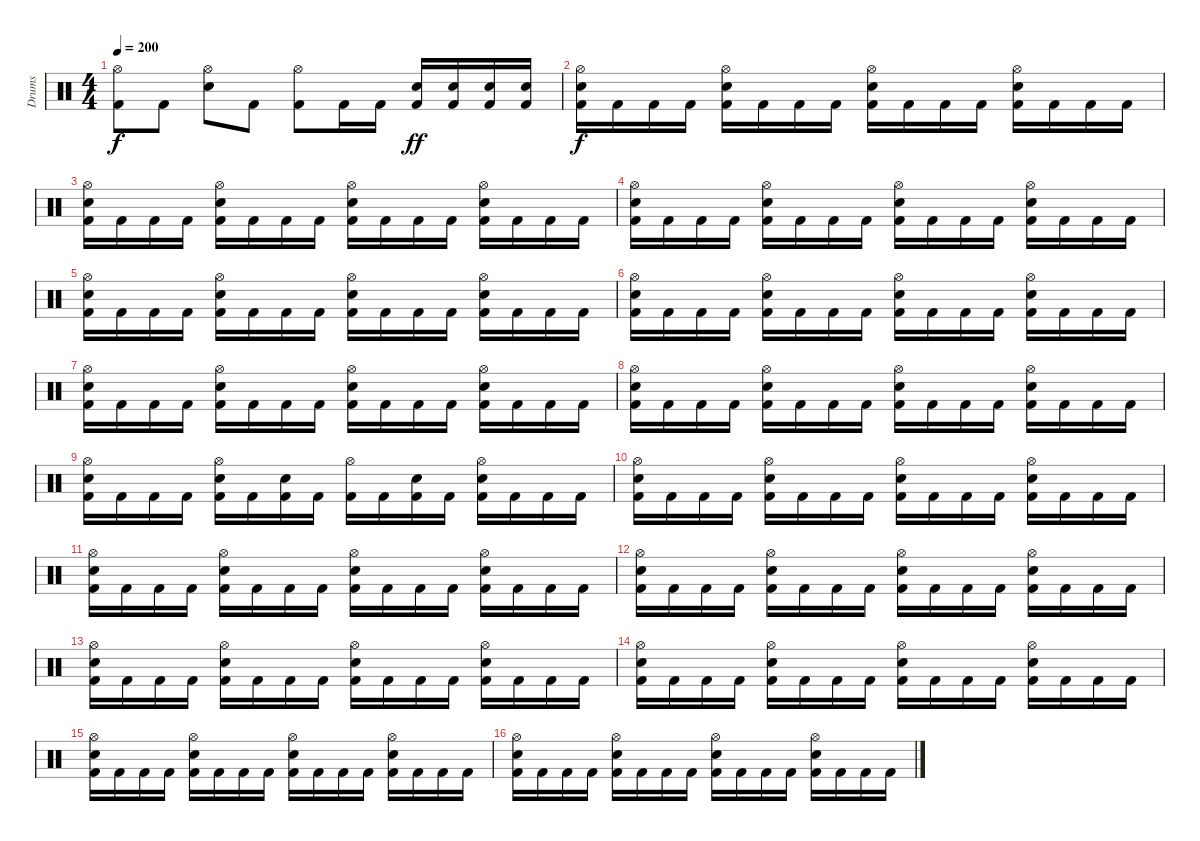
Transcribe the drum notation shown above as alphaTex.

\track ("Drums" "Drums") {instrument percussion}
\staff {score}
\articulation defaults
\ts (4 4)
\tempo 200
\clef neutral
\ks c
("Hi-Hat (open)" "Kick (hit) 2").8{dy f} "Kick (hit) 2".8 ("Hi-Hat (open)" "Snare (hit) 2").8 "Kick (hit) 2".8 ("Hi-Hat (open)" "Kick (hit) 2").8 "Kick (hit) 2".16 "Kick (hit) 2".16 ("Snare (hit) 2" "Kick (hit) 2").16{dy ff} ("Snare (hit) 2" "Kick (hit) 2").16 ("Snare (hit) 2" "Kick (hit) 2").16 ("Snare (hit) 2" "Kick (hit) 2").16 |
("Hi-Hat (open)" "Snare (hit) 2" "Kick (hit) 2").16{dy f} "Kick (hit) 2".16 "Kick (hit) 2".16 "Kick (hit) 2".16 ("Hi-Hat (open)" "Snare (hit) 2" "Kick (hit) 2").16 "Kick (hit) 2".16 "Kick (hit) 2".16 "Kick (hit) 2".16 ("Hi-Hat (open)" "Snare (hit) 2" "Kick (hit) 2").16 "Kick (hit) 2".16 "Kick (hit) 2".16 "Kick (hit) 2".16 ("Hi-Hat (open)" "Snare (hit) 2" "Kick (hit) 2").16 "Kick (hit) 2".16 "Kick (hit) 2".16 "Kick (hit) 2".16 |
("Hi-Hat (open)" "Snare (hit) 2" "Kick (hit) 2").16 "Kick (hit) 2".16 "Kick (hit) 2".16 "Kick (hit) 2".16 ("Hi-Hat (open)" "Snare (hit) 2" "Kick (hit) 2").16 "Kick (hit) 2".16 "Kick (hit) 2".16 "Kick (hit) 2".16 ("Hi-Hat (open)" "Snare (hit) 2" "Kick (hit) 2").16 "Kick (hit) 2".16 "Kick (hit) 2".16 "Kick (hit) 2".16 ("Hi-Hat (open)" "Snare (hit) 2" "Kick (hit) 2").16 "Kick (hit) 2".16 "Kick (hit) 2".16 "Kick (hit) 2".16 |
("Hi-Hat (open)" "Snare (hit) 2" "Kick (hit) 2").16 "Kick (hit) 2".16 "Kick (hit) 2".16 "Kick (hit) 2".16 ("Hi-Hat (open)" "Snare (hit) 2" "Kick (hit) 2").16 "Kick (hit) 2".16 "Kick (hit) 2".16 "Kick (hit) 2".16 ("Hi-Hat (open)" "Snare (hit) 2" "Kick (hit) 2").16 "Kick (hit) 2".16 "Kick (hit) 2".16 "Kick (hit) 2".16 ("Hi-Hat (open)" "Snare (hit) 2" "Kick (hit) 2").16 "Kick (hit) 2".16 "Kick (hit) 2".16 "Kick (hit) 2".16 |
("Hi-Hat (open)" "Snare (hit) 2" "Kick (hit) 2").16 "Kick (hit) 2".16 "Kick (hit) 2".16 "Kick (hit) 2".16 ("Hi-Hat (open)" "Snare (hit) 2" "Kick (hit) 2").16 "Kick (hit) 2".16 "Kick (hit) 2".16 "Kick (hit) 2".16 ("Hi-Hat (open)" "Snare (hit) 2" "Kick (hit) 2").16 "Kick (hit) 2".16 "Kick (hit) 2".16 "Kick (hit) 2".16 ("Hi-Hat (open)" "Snare (hit) 2" "Kick (hit) 2").16 "Kick (hit) 2".16 "Kick (hit) 2".16 "Kick (hit) 2".16 |
("Hi-Hat (open)" "Snare (hit) 2" "Kick (hit) 2").16 "Kick (hit) 2".16 "Kick (hit) 2".16 "Kick (hit) 2".16 ("Hi-Hat (open)" "Snare (hit) 2" "Kick (hit) 2").16 "Kick (hit) 2".16 "Kick (hit) 2".16 "Kick (hit) 2".16 ("Hi-Hat (open)" "Snare (hit) 2" "Kick (hit) 2").16 "Kick (hit) 2".16 "Kick (hit) 2".16 "Kick (hit) 2".16 ("Hi-Hat (open)" "Snare (hit) 2" "Kick (hit) 2").16 "Kick (hit) 2".16 "Kick (hit) 2".16 "Kick (hit) 2".16 |
("Hi-Hat (open)" "Snare (hit) 2" "Kick (hit) 2").16 "Kick (hit) 2".16 "Kick (hit) 2".16 "Kick (hit) 2".16 ("Hi-Hat (open)" "Snare (hit) 2" "Kick (hit) 2").16 "Kick (hit) 2".16 "Kick (hit) 2".16 "Kick (hit) 2".16 ("Hi-Hat (open)" "Snare (hit) 2" "Kick (hit) 2").16 "Kick (hit) 2".16 "Kick (hit) 2".16 "Kick (hit) 2".16 ("Hi-Hat (open)" "Snare (hit) 2" "Kick (hit) 2").16 "Kick (hit) 2".16 "Kick (hit) 2".16 "Kick (hit) 2".16 |
("Hi-Hat (open)" "Snare (hit) 2" "Kick (hit) 2").16 "Kick (hit) 2".16 "Kick (hit) 2".16 "Kick (hit) 2".16 ("Hi-Hat (open)" "Snare (hit) 2" "Kick (hit) 2").16 "Kick (hit) 2".16 "Kick (hit) 2".16 "Kick (hit) 2".16 ("Hi-Hat (open)" "Snare (hit) 2" "Kick (hit) 2").16 "Kick (hit) 2".16 "Kick (hit) 2".16 "Kick (hit) 2".16 ("Hi-Hat (open)" "Snare (hit) 2" "Kick (hit) 2").16 "Kick (hit) 2".16 "Kick (hit) 2".16 "Kick (hit) 2".16 |
("Hi-Hat (open)" "Snare (hit) 2" "Kick (hit) 2").16 "Kick (hit) 2".16 "Kick (hit) 2".16 "Kick (hit) 2".16 ("Hi-Hat (open)" "Snare (hit) 2" "Kick (hit) 2").16 "Kick (hit) 2".16 ("Snare (hit) 2" "Kick (hit) 2").16 "Kick (hit) 2".16 ("Hi-Hat (open)" "Kick (hit) 2").16 "Kick (hit) 2".16 ("Snare (hit) 2" "Kick (hit) 2").16 "Kick (hit) 2".16 ("Hi-Hat (open)" "Snare (hit) 2" "Kick (hit) 2").16 "Kick (hit) 2".16 "Kick (hit) 2".16 "Kick (hit) 2".16 |
("Hi-Hat (open)" "Snare (hit) 2" "Kick (hit) 2").16 "Kick (hit) 2".16 "Kick (hit) 2".16 "Kick (hit) 2".16 ("Hi-Hat (open)" "Snare (hit) 2" "Kick (hit) 2").16 "Kick (hit) 2".16 "Kick (hit) 2".16 "Kick (hit) 2".16 ("Hi-Hat (open)" "Snare (hit) 2" "Kick (hit) 2").16 "Kick (hit) 2".16 "Kick (hit) 2".16 "Kick (hit) 2".16 ("Hi-Hat (open)" "Snare (hit) 2" "Kick (hit) 2").16 "Kick (hit) 2".16 "Kick (hit) 2".16 "Kick (hit) 2".16 |
("Hi-Hat (open)" "Snare (hit) 2" "Kick (hit) 2").16 "Kick (hit) 2".16 "Kick (hit) 2".16 "Kick (hit) 2".16 ("Hi-Hat (open)" "Snare (hit) 2" "Kick (hit) 2").16 "Kick (hit) 2".16 "Kick (hit) 2".16 "Kick (hit) 2".16 ("Hi-Hat (open)" "Snare (hit) 2" "Kick (hit) 2").16 "Kick (hit) 2".16 "Kick (hit) 2".16 "Kick (hit) 2".16 ("Hi-Hat (open)" "Snare (hit) 2" "Kick (hit) 2").16 "Kick (hit) 2".16 "Kick (hit) 2".16 "Kick (hit) 2".16 |
("Hi-Hat (open)" "Snare (hit) 2" "Kick (hit) 2").16 "Kick (hit) 2".16 "Kick (hit) 2".16 "Kick (hit) 2".16 ("Hi-Hat (open)" "Snare (hit) 2" "Kick (hit) 2").16 "Kick (hit) 2".16 "Kick (hit) 2".16 "Kick (hit) 2".16 ("Hi-Hat (open)" "Snare (hit) 2" "Kick (hit) 2").16 "Kick (hit) 2".16 "Kick (hit) 2".16 "Kick (hit) 2".16 ("Hi-Hat (open)" "Snare (hit) 2" "Kick (hit) 2").16 "Kick (hit) 2".16 "Kick (hit) 2".16 "Kick (hit) 2".16 |
("Hi-Hat (open)" "Snare (hit) 2" "Kick (hit) 2").16 "Kick (hit) 2".16 "Kick (hit) 2".16 "Kick (hit) 2".16 ("Hi-Hat (open)" "Snare (hit) 2" "Kick (hit) 2").16 "Kick (hit) 2".16 "Kick (hit) 2".16 "Kick (hit) 2".16 ("Hi-Hat (open)" "Snare (hit) 2" "Kick (hit) 2").16 "Kick (hit) 2".16 "Kick (hit) 2".16 "Kick (hit) 2".16 ("Hi-Hat (open)" "Snare (hit) 2" "Kick (hit) 2").16 "Kick (hit) 2".16 "Kick (hit) 2".16 "Kick (hit) 2".16 |
("Hi-Hat (open)" "Snare (hit) 2" "Kick (hit) 2").16 "Kick (hit) 2".16 "Kick (hit) 2".16 "Kick (hit) 2".16 ("Hi-Hat (open)" "Snare (hit) 2" "Kick (hit) 2").16 "Kick (hit) 2".16 "Kick (hit) 2".16 "Kick (hit) 2".16 ("Hi-Hat (open)" "Snare (hit) 2" "Kick (hit) 2").16 "Kick (hit) 2".16 "Kick (hit) 2".16 "Kick (hit) 2".16 ("Hi-Hat (open)" "Snare (hit) 2" "Kick (hit) 2").16 "Kick (hit) 2".16 "Kick (hit) 2".16 "Kick (hit) 2".16 |
("Hi-Hat (open)" "Snare (hit) 2" "Kick (hit) 2").16 "Kick (hit) 2".16 "Kick (hit) 2".16 "Kick (hit) 2".16 ("Hi-Hat (open)" "Snare (hit) 2" "Kick (hit) 2").16 "Kick (hit) 2".16 "Kick (hit) 2".16 "Kick (hit) 2".16 ("Hi-Hat (open)" "Snare (hit) 2" "Kick (hit) 2").16 "Kick (hit) 2".16 "Kick (hit) 2".16 "Kick (hit) 2".16 ("Hi-Hat (open)" "Snare (hit) 2" "Kick (hit) 2").16 "Kick (hit) 2".16 "Kick (hit) 2".16 "Kick (hit) 2".16 |
("Hi-Hat (open)" "Snare (hit) 2" "Kick (hit) 2").16 "Kick (hit) 2".16 "Kick (hit) 2".16 "Kick (hit) 2".16 ("Hi-Hat (open)" "Snare (hit) 2" "Kick (hit) 2").16 "Kick (hit) 2".16 "Kick (hit) 2".16 "Kick (hit) 2".16 ("Hi-Hat (open)" "Snare (hit) 2" "Kick (hit) 2").16 "Kick (hit) 2".16 "Kick (hit) 2".16 "Kick (hit) 2".16 ("Hi-Hat (open)" "Snare (hit) 2" "Kick (hit) 2").16 "Kick (hit) 2".16 "Kick (hit) 2".16 "Kick (hit) 2".16
